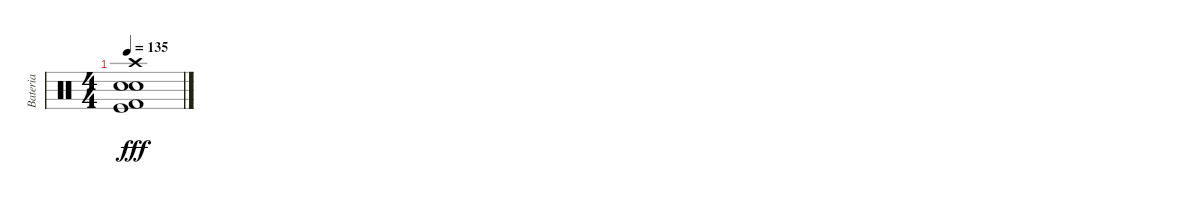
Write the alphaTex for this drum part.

\track ("Bateria" "Bateria") {instrument percussion}
\staff {score}
\articulation defaults
\ts (4 4)
\tempo 135
\clef neutral
\ks c
("Crash high (hit)" "Electric Snare (hit)" "Snare (hit) 2" "Kick (hit) 2" "Kick (hit)").1{dy fff}
